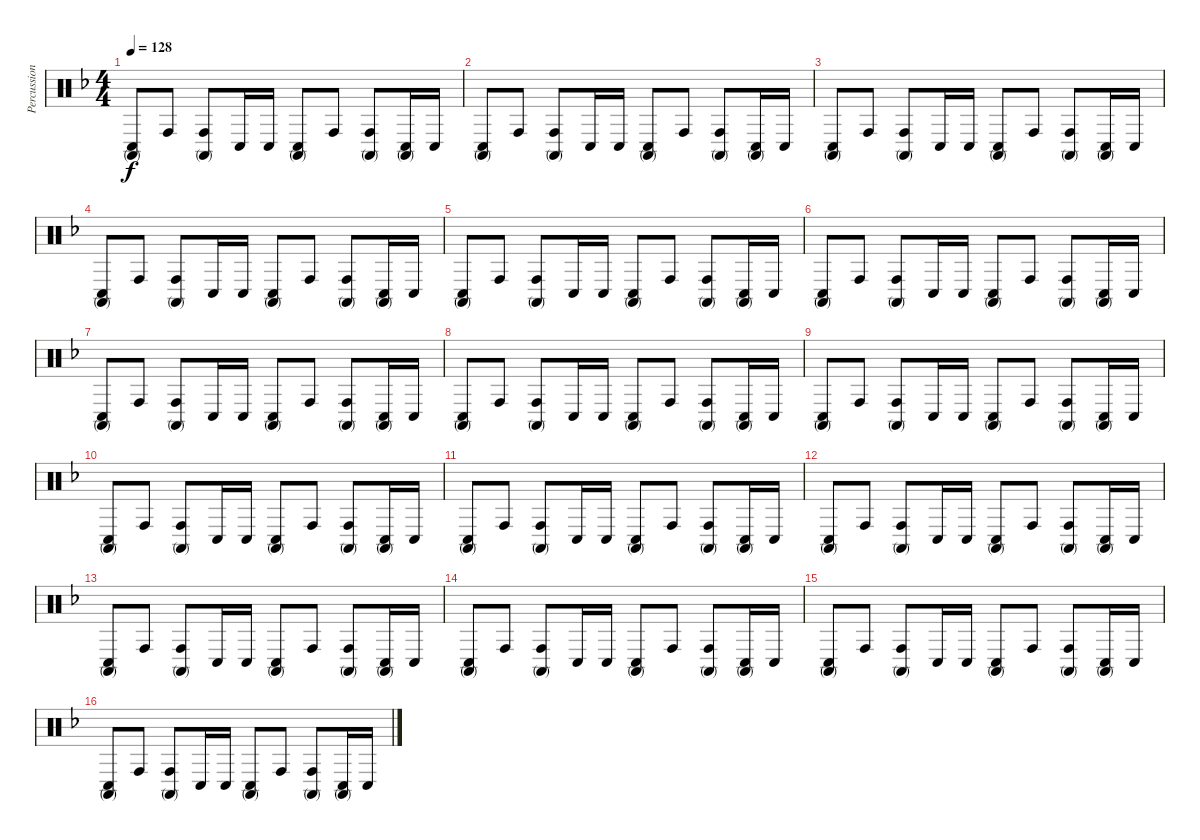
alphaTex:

\track ("Percussion" "Percussion") {instrument percussion}
\staff {score}
\articulation defaults
\ts (4 4)
\tempo 128
\clef neutral
\ks f
("Conga high (mute)" "Conga low (hit)").8{dy f} "Conga high (hit)".8 ("Conga high (mute)" "Conga high (hit)").8 "Conga low (hit)".16 "Conga low (hit)".16 ("Conga high (mute)" "Conga low (hit)").8 "Conga high (hit)".8 ("Conga high (mute)" "Conga high (hit)").8 ("Conga high (mute)" "Conga low (hit)").16 "Conga low (hit)".16 |
("Conga high (mute)" "Conga low (hit)").8 "Conga high (hit)".8 ("Conga high (mute)" "Conga high (hit)").8 "Conga low (hit)".16 "Conga low (hit)".16 ("Conga high (mute)" "Conga low (hit)").8 "Conga high (hit)".8 ("Conga high (mute)" "Conga high (hit)").8 ("Conga high (mute)" "Conga low (hit)").16 "Conga low (hit)".16 |
("Conga high (mute)" "Conga low (hit)").8 "Conga high (hit)".8 ("Conga high (mute)" "Conga high (hit)").8 "Conga low (hit)".16 "Conga low (hit)".16 ("Conga high (mute)" "Conga low (hit)").8 "Conga high (hit)".8 ("Conga high (mute)" "Conga high (hit)").8 ("Conga high (mute)" "Conga low (hit)").16 "Conga low (hit)".16 |
("Conga high (mute)" "Conga low (hit)").8 "Conga high (hit)".8 ("Conga high (mute)" "Conga high (hit)").8 "Conga low (hit)".16 "Conga low (hit)".16 ("Conga high (mute)" "Conga low (hit)").8 "Conga high (hit)".8 ("Conga high (mute)" "Conga high (hit)").8 ("Conga high (mute)" "Conga low (hit)").16 "Conga low (hit)".16 |
("Conga high (mute)" "Conga low (hit)").8 "Conga high (hit)".8 ("Conga high (mute)" "Conga high (hit)").8 "Conga low (hit)".16 "Conga low (hit)".16 ("Conga high (mute)" "Conga low (hit)").8 "Conga high (hit)".8 ("Conga high (mute)" "Conga high (hit)").8 ("Conga high (mute)" "Conga low (hit)").16 "Conga low (hit)".16 |
("Conga high (mute)" "Conga low (hit)").8 "Conga high (hit)".8 ("Conga high (mute)" "Conga high (hit)").8 "Conga low (hit)".16 "Conga low (hit)".16 ("Conga high (mute)" "Conga low (hit)").8 "Conga high (hit)".8 ("Conga high (mute)" "Conga high (hit)").8 ("Conga high (mute)" "Conga low (hit)").16 "Conga low (hit)".16 |
("Conga high (mute)" "Conga low (hit)").8 "Conga high (hit)".8 ("Conga high (mute)" "Conga high (hit)").8 "Conga low (hit)".16 "Conga low (hit)".16 ("Conga high (mute)" "Conga low (hit)").8 "Conga high (hit)".8 ("Conga high (mute)" "Conga high (hit)").8 ("Conga high (mute)" "Conga low (hit)").16 "Conga low (hit)".16 |
("Conga high (mute)" "Conga low (hit)").8 "Conga high (hit)".8 ("Conga high (mute)" "Conga high (hit)").8 "Conga low (hit)".16 "Conga low (hit)".16 ("Conga high (mute)" "Conga low (hit)").8 "Conga high (hit)".8 ("Conga high (mute)" "Conga high (hit)").8 ("Conga high (mute)" "Conga low (hit)").16 "Conga low (hit)".16 |
("Conga high (mute)" "Conga low (hit)").8 "Conga high (hit)".8 ("Conga high (mute)" "Conga high (hit)").8 "Conga low (hit)".16 "Conga low (hit)".16 ("Conga high (mute)" "Conga low (hit)").8 "Conga high (hit)".8 ("Conga high (mute)" "Conga high (hit)").8 ("Conga high (mute)" "Conga low (hit)").16 "Conga low (hit)".16 |
("Conga high (mute)" "Conga low (hit)").8 "Conga high (hit)".8 ("Conga high (mute)" "Conga high (hit)").8 "Conga low (hit)".16 "Conga low (hit)".16 ("Conga high (mute)" "Conga low (hit)").8 "Conga high (hit)".8 ("Conga high (mute)" "Conga high (hit)").8 ("Conga high (mute)" "Conga low (hit)").16 "Conga low (hit)".16 |
("Conga high (mute)" "Conga low (hit)").8 "Conga high (hit)".8 ("Conga high (mute)" "Conga high (hit)").8 "Conga low (hit)".16 "Conga low (hit)".16 ("Conga high (mute)" "Conga low (hit)").8 "Conga high (hit)".8 ("Conga high (mute)" "Conga high (hit)").8 ("Conga high (mute)" "Conga low (hit)").16 "Conga low (hit)".16 |
("Conga high (mute)" "Conga low (hit)").8 "Conga high (hit)".8 ("Conga high (mute)" "Conga high (hit)").8 "Conga low (hit)".16 "Conga low (hit)".16 ("Conga high (mute)" "Conga low (hit)").8 "Conga high (hit)".8 ("Conga high (mute)" "Conga high (hit)").8 ("Conga high (mute)" "Conga low (hit)").16 "Conga low (hit)".16 |
("Conga high (mute)" "Conga low (hit)").8 "Conga high (hit)".8 ("Conga high (mute)" "Conga high (hit)").8 "Conga low (hit)".16 "Conga low (hit)".16 ("Conga high (mute)" "Conga low (hit)").8 "Conga high (hit)".8 ("Conga high (mute)" "Conga high (hit)").8 ("Conga high (mute)" "Conga low (hit)").16 "Conga low (hit)".16 |
("Conga high (mute)" "Conga low (hit)").8 "Conga high (hit)".8 ("Conga high (mute)" "Conga high (hit)").8 "Conga low (hit)".16 "Conga low (hit)".16 ("Conga high (mute)" "Conga low (hit)").8 "Conga high (hit)".8 ("Conga high (mute)" "Conga high (hit)").8 ("Conga high (mute)" "Conga low (hit)").16 "Conga low (hit)".16 |
("Conga high (mute)" "Conga low (hit)").8 "Conga high (hit)".8 ("Conga high (mute)" "Conga high (hit)").8 "Conga low (hit)".16 "Conga low (hit)".16 ("Conga high (mute)" "Conga low (hit)").8 "Conga high (hit)".8 ("Conga high (mute)" "Conga high (hit)").8 ("Conga high (mute)" "Conga low (hit)").16 "Conga low (hit)".16 |
("Conga high (mute)" "Conga low (hit)").8 "Conga high (hit)".8 ("Conga high (mute)" "Conga high (hit)").8 "Conga low (hit)".16 "Conga low (hit)".16 ("Conga high (mute)" "Conga low (hit)").8 "Conga high (hit)".8 ("Conga high (mute)" "Conga high (hit)").8 ("Conga high (mute)" "Conga low (hit)").16 "Conga low (hit)".16
